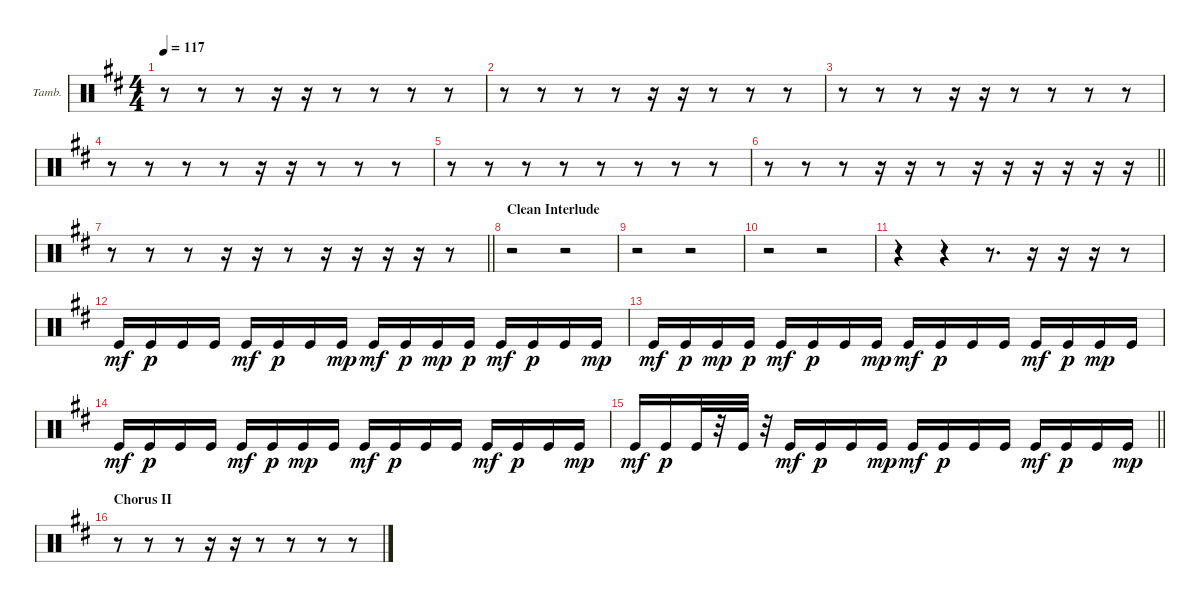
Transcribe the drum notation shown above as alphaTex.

\bracketExtendMode groupsimilarinstruments
\firstSystemTrackNameOrientation horizontal
\otherSystemsTrackNameOrientation horizontal
\track ("Tambourine" "Tamb.") {instrument percussion}
\staff {score}
\articulation defaults
\ts (4 4)
\tempo 117
\clef neutral
\ks d
r.8{dy mp} r.8 r.8 r.16 r.16 r.8 r.8 r.8 r.8 |
r.8 r.8 r.8 r.8 r.16 r.16 r.8 r.8 r.8 |
r.8 r.8 r.8 r.16 r.16 r.8 r.8 r.8 r.8 |
r.8 r.8 r.8 r.8 r.16 r.16 r.8 r.8 r.8 |
r.8 r.8 r.8 r.8 r.8 r.8 r.8 r.8 |
\barLineRight lightlight
r.8 r.8 r.8 r.16 r.16 r.8 r.16 r.16 r.16 r.16 r.16 r.16 |
\barLineRight lightlight
r.8 r.8 r.8 r.16 r.16 r.8 r.16 r.16 r.16 r.16 r.8 |
\section ("" "Clean Interlude")
r.2 r.2 |
r.2 r.2 |
r.2 r.2 |
r.4 r.4 r.8{d} r.16 r.16 r.16 r.8 |
"Kick (hit)".16{dy mf} "Kick (hit)".16{dy p} "Kick (hit)".16 "Kick (hit)".16 "Kick (hit)".16{dy mf} "Kick (hit)".16{dy p} "Kick (hit)".16 "Kick (hit)".16{dy mp} "Kick (hit)".16{dy mf} "Kick (hit)".16{dy p} "Kick (hit)".16{dy mp} "Kick (hit)".16{dy p} "Kick (hit)".16{dy mf} "Kick (hit)".16{dy p} "Kick (hit)".16 "Kick (hit)".16{dy mp} |
"Kick (hit)".16{dy mf} "Kick (hit)".16{dy p} "Kick (hit)".16{dy mp} "Kick (hit)".16{dy p} "Kick (hit)".16{dy mf} "Kick (hit)".16{dy p} "Kick (hit)".16 "Kick (hit)".16{dy mp} "Kick (hit)".16{dy mf} "Kick (hit)".16{dy p} "Kick (hit)".16 "Kick (hit)".16 "Kick (hit)".16{dy mf} "Kick (hit)".16{dy p} "Kick (hit)".16{dy mp} "Kick (hit)".16 |
"Kick (hit)".16{dy mf} "Kick (hit)".16{dy p} "Kick (hit)".16 "Kick (hit)".16 "Kick (hit)".16{dy mf} "Kick (hit)".16{dy p} "Kick (hit)".16{dy mp} "Kick (hit)".16 "Kick (hit)".16{dy mf} "Kick (hit)".16{dy p} "Kick (hit)".16 "Kick (hit)".16 "Kick (hit)".16{dy mf} "Kick (hit)".16{dy p} "Kick (hit)".16 "Kick (hit)".16{dy mp} |
\barLineRight lightlight "Kick (hit)".16{dy mf} "Kick (hit)".16{dy p} "Kick (hit)".32
r.32 "Kick (hit)".32 r.32 "Kick (hit)".16{dy mf} "Kick (hit)".16{dy p} "Kick (hit)".16 "Kick (hit)".16{dy mp} "Kick (hit)".16{dy mf} "Kick (hit)".16{dy p} "Kick (hit)".16 "Kick (hit)".16 "Kick (hit)".16{dy mf} "Kick (hit)".16{dy p} "Kick (hit)".16 "Kick (hit)".16{dy mp} |
\section ("" "Chorus II")
r.8 r.8 r.8 r.16 r.16 r.8 r.8 r.8 r.8
